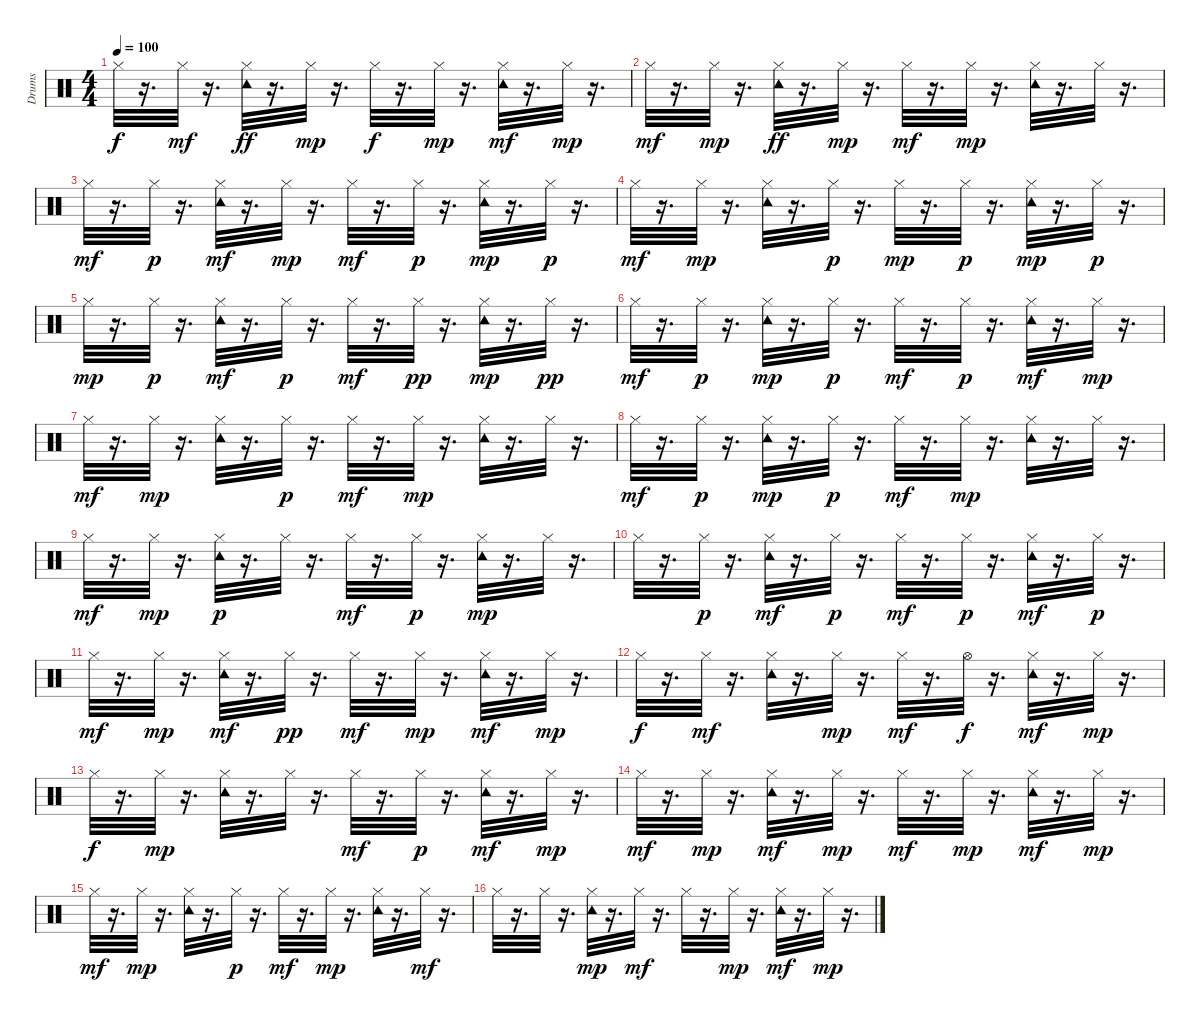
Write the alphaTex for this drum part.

\track ("Drums" "Drums") {instrument percussion}
\staff {score}
\articulation defaults
\ts (4 4)
\tempo 100
\clef neutral
\ks c "Hi-Hat (closed)".32{dy f}
r.16{d} "Hi-Hat (closed)".32{dy mf} r.16{d} ("Tambourine (hit)" "Hi-Hat (closed)").32{dy ff} r.16{d} "Hi-Hat (closed)".32{dy mp} r.16{d} "Hi-Hat (closed)".32{dy f} r.16{d} "Hi-Hat (closed)".32{dy mp} r.16{d} ("Hi-Hat (closed)" "Tambourine (hit)").32{dy mf} r.16{d} "Hi-Hat (closed)".32{dy mp} r.16{d} |
"Hi-Hat (closed)".32{dy mf} r.16{d} "Hi-Hat (closed)".32{dy mp} r.16{d} ("Tambourine (hit)" "Hi-Hat (closed)").32{dy ff} r.16{d} "Hi-Hat (closed)".32{dy mp} r.16{d} "Hi-Hat (closed)".32{dy mf} r.16{d} "Hi-Hat (closed)".32{dy mp} r.16{d} ("Hi-Hat (closed)" "Tambourine (hit)").32 r.16{d} "Hi-Hat (closed)".32 r.16{d} |
"Hi-Hat (closed)".32{dy mf} r.16{d} "Hi-Hat (closed)".32{dy p} r.16{d} ("Hi-Hat (closed)" "Tambourine (hit)").32{dy mf} r.16{d} "Hi-Hat (closed)".32{dy mp} r.16{d} "Hi-Hat (closed)".32{dy mf} r.16{d} "Hi-Hat (closed)".32{dy p} r.16{d} ("Hi-Hat (closed)" "Tambourine (hit)").32{dy mp} r.16{d} "Hi-Hat (closed)".32{dy p} r.16{d} |
"Hi-Hat (closed)".32{dy mf} r.16{d} "Hi-Hat (closed)".32{dy mp} r.16{d} ("Hi-Hat (closed)" "Tambourine (hit)").32 r.16{d} "Hi-Hat (closed)".32{dy p} r.16{d} "Hi-Hat (closed)".32{dy mp} r.16{d} "Hi-Hat (closed)".32{dy p} r.16{d} ("Hi-Hat (closed)" "Tambourine (hit)").32{dy mp} r.16{d} "Hi-Hat (closed)".32{dy p} r.16{d} |
"Hi-Hat (closed)".32{dy mp} r.16{d} "Hi-Hat (closed)".32{dy p} r.16{d} ("Hi-Hat (closed)" "Tambourine (hit)").32{dy mf} r.16{d} "Hi-Hat (closed)".32{dy p} r.16{d} "Hi-Hat (closed)".32{dy mf} r.16{d} "Hi-Hat (closed)".32{dy pp} r.16{d} ("Hi-Hat (closed)" "Tambourine (hit)").32{dy mp} r.16{d} "Hi-Hat (closed)".32{dy pp} r.16{d} |
"Hi-Hat (closed)".32{dy mf} r.16{d} "Hi-Hat (closed)".32{dy p} r.16{d} ("Hi-Hat (closed)" "Tambourine (hit)").32{dy mp} r.16{d} "Hi-Hat (closed)".32{dy p} r.16{d} "Hi-Hat (closed)".32{dy mf} r.16{d} "Hi-Hat (closed)".32{dy p} r.16{d} ("Hi-Hat (closed)" "Tambourine (hit)").32{dy mf} r.16{d} "Hi-Hat (closed)".32{dy mp} r.16{d} |
"Hi-Hat (closed)".32{dy mf} r.16{d} "Hi-Hat (closed)".32{dy mp} r.16{d} ("Tambourine (hit)" "Hi-Hat (closed)").32 r.16{d} "Hi-Hat (closed)".32{dy p} r.16{d} "Hi-Hat (closed)".32{dy mf} r.16{d} "Hi-Hat (closed)".32{dy mp} r.16{d} ("Hi-Hat (closed)" "Tambourine (hit)").32 r.16{d} "Hi-Hat (closed)".32 r.16{d} |
"Hi-Hat (closed)".32{dy mf} r.16{d} "Hi-Hat (closed)".32{dy p} r.16{d} ("Hi-Hat (closed)" "Tambourine (hit)").32{dy mp} r.16{d} "Hi-Hat (closed)".32{dy p} r.16{d} "Hi-Hat (closed)".32{dy mf} r.16{d} "Hi-Hat (closed)".32{dy mp} r.16{d} ("Tambourine (hit)" "Hi-Hat (closed)").32 r.16{d} "Hi-Hat (closed)".32 r.16{d} |
"Hi-Hat (closed)".32{dy mf} r.16{d} "Hi-Hat (closed)".32{dy mp} r.16{d} ("Hi-Hat (closed)" "Tambourine (hit)").32{dy p} r.16{d} "Hi-Hat (closed)".32 r.16{d} "Hi-Hat (closed)".32{dy mf} r.16{d} "Hi-Hat (closed)".32{dy p} r.16{d} ("Hi-Hat (closed)" "Tambourine (hit)").32{dy mp} r.16{d} "Hi-Hat (closed)".32 r.16{d} |
"Hi-Hat (closed)".32 r.16{d} "Hi-Hat (closed)".32{dy p} r.16{d} ("Hi-Hat (closed)" "Tambourine (hit)").32{dy mf} r.16{d} "Hi-Hat (closed)".32{dy p} r.16{d} "Hi-Hat (closed)".32{dy mf} r.16{d} "Hi-Hat (closed)".32{dy p} r.16{d} ("Hi-Hat (closed)" "Tambourine (hit)").32{dy mf} r.16{d} "Hi-Hat (closed)".32{dy p} r.16{d} |
"Hi-Hat (closed)".32{dy mf} r.16{d} "Hi-Hat (closed)".32{dy mp} r.16{d} ("Hi-Hat (closed)" "Tambourine (hit)").32{dy mf} r.16{d} "Hi-Hat (closed)".32{dy pp} r.16{d} "Hi-Hat (closed)".32{dy mf} r.16{d} "Hi-Hat (closed)".32{dy mp} r.16{d} ("Hi-Hat (closed)" "Tambourine (hit)").32{dy mf} r.16{d} "Hi-Hat (closed)".32{dy mp} r.16{d} |
"Hi-Hat (closed)".32{dy f} r.16{d} "Hi-Hat (closed)".32{dy mf} r.16{d} ("Tambourine (hit)" "Hi-Hat (closed)").32 r.16{d} "Hi-Hat (closed)".32{dy mp} r.16{d} "Hi-Hat (closed)".32{dy mf} r.16{d} "Hi-Hat (open)".32{dy f} r.16{d} ("Tambourine (hit)" "Hi-Hat (closed)").32{dy mf} r.16{d} "Hi-Hat (closed)".32{dy mp} r.16{d} |
"Hi-Hat (closed)".32{dy f} r.16{d} "Hi-Hat (closed)".32{dy mp} r.16{d} ("Tambourine (hit)" "Hi-Hat (closed)").32 r.16{d} "Hi-Hat (closed)".32 r.16{d} "Hi-Hat (closed)".32{dy mf} r.16{d} "Hi-Hat (closed)".32{dy p} r.16{d} ("Tambourine (hit)" "Hi-Hat (closed)").32{dy mf} r.16{d} "Hi-Hat (closed)".32{dy mp} r.16{d} |
"Hi-Hat (closed)".32{dy mf} r.16{d} "Hi-Hat (closed)".32{dy mp} r.16{d} ("Tambourine (hit)" "Hi-Hat (closed)").32{dy mf} r.16{d} "Hi-Hat (closed)".32{dy mp} r.16{d} "Hi-Hat (closed)".32{dy mf} r.16{d} "Hi-Hat (closed)".32{dy mp} r.16{d} ("Hi-Hat (closed)" "Tambourine (hit)").32{dy mf} r.16{d} "Hi-Hat (closed)".32{dy mp} r.16{d} |
"Hi-Hat (closed)".32{dy mf} r.16{d} "Hi-Hat (closed)".32{dy mp} r.16{d} ("Tambourine (hit)" "Hi-Hat (closed)").32 r.16{d} "Hi-Hat (closed)".32{dy p} r.16{d} "Hi-Hat (closed)".32{dy mf} r.16{d} "Hi-Hat (closed)".32{dy mp} r.16{d} ("Tambourine (hit)" "Hi-Hat (closed)").32 r.16{d} "Hi-Hat (closed)".32{dy mf} r.16{d} |
"Hi-Hat (closed)".32 r.16{d} "Hi-Hat (closed)".32 r.16{d} ("Hi-Hat (closed)" "Tambourine (hit)").32{dy mp} r.16{d} "Hi-Hat (closed)".32{dy mf} r.16{d} "Hi-Hat (closed)".32 r.16{d} "Hi-Hat (closed)".32{dy mp} r.16{d} ("Hi-Hat (closed)" "Tambourine (hit)").32{dy mf} r.16{d} "Hi-Hat (closed)".32{dy mp} r.16{d}
